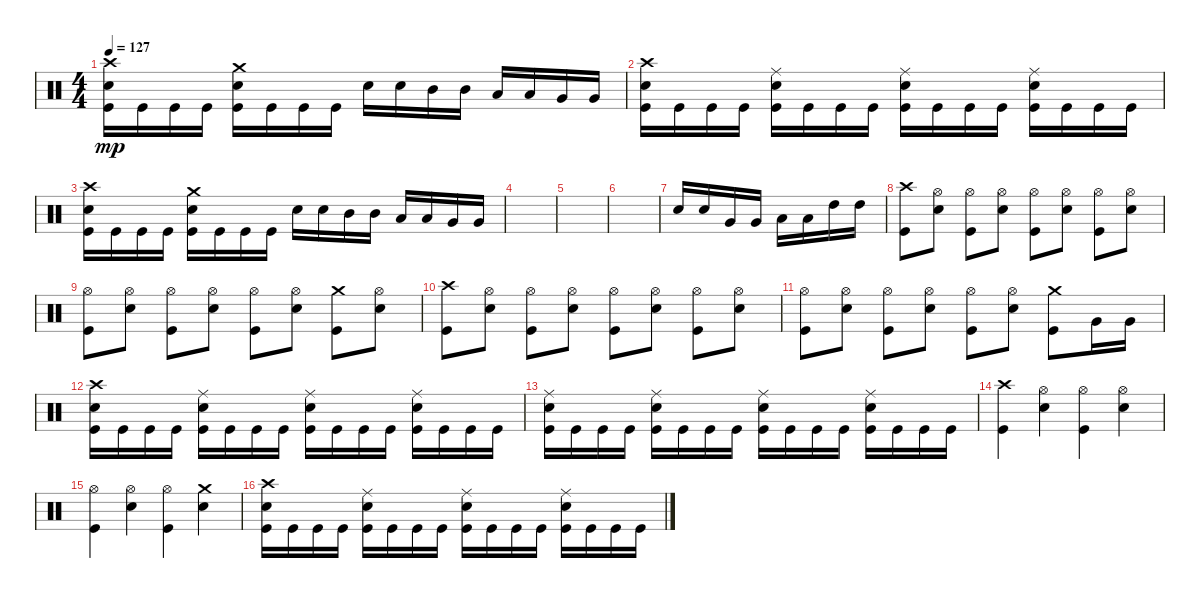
\track "" {instrument percussion}
\staff {score}
\articulation defaults
\ts (4 4)
\tempo 127
\clef neutral
\ks c
("Crash high (hit)" "Kick (hit)" "Snare (hit) 2").16{dy mp} "Kick (hit)".16 "Kick (hit)".16 "Kick (hit)".16 ("Crash medium (hit)" "Kick (hit)" "Snare (hit) 2").16 "Kick (hit)".16 "Kick (hit)".16 "Kick (hit)".16 "Snare (hit) 2".16 "Snare (hit) 2".16 "Mid Tom (hit)".16 "Mid Tom (hit)".16 "Low Tom (hit)".16 "Low Tom (hit)".16 "Very Low Tom (hit)".16 "Very Low Tom (hit)".16 |
("Kick (hit)" "Crash high (hit)" "Snare (hit) 2").16 "Kick (hit)".16 "Kick (hit)".16 "Kick (hit)".16 ("Kick (hit)" "Snare (hit) 2" "Ride (middle)").16 "Kick (hit)".16 "Kick (hit)".16 "Kick (hit)".16 ("Kick (hit)" "Snare (hit) 2" "Ride (middle)").16 "Kick (hit)".16 "Kick (hit)".16 "Kick (hit)".16 ("Kick (hit)" "Snare (hit) 2" "Ride (middle)").16 "Kick (hit)".16 "Kick (hit)".16 "Kick (hit)".16 |
("Crash high (hit)" "Kick (hit)" "Snare (hit) 2").16 "Kick (hit)".16 "Kick (hit)".16 "Kick (hit)".16 ("Crash medium (hit)" "Kick (hit)" "Snare (hit) 2").16 "Kick (hit)".16 "Kick (hit)".16 "Kick (hit)".16 "Snare (hit) 2".16 "Snare (hit) 2".16 "Mid Tom (hit)".16 "Mid Tom (hit)".16 "Low Tom (hit)".16 "Low Tom (hit)".16 "Very Low Tom (hit)".16 "Very Low Tom (hit)".16 |
|
|
|
"Snare (hit) 2".16 "Snare (hit) 2".16 "Very Low Tom (hit)".16 "Very Low Tom (hit)".16 "Low Tom (hit)".16 "Low Tom (hit)".16 "High Tom (hit)".16 "High Tom (hit)".16 |
("Kick (hit)" "Crash high (hit)").8 ("Snare (hit) 2" "Hi-Hat (open)").8 ("Hi-Hat (open)" "Kick (hit)").8 ("Snare (hit) 2" "Hi-Hat (open)").8 ("Hi-Hat (open)" "Kick (hit)").8 ("Snare (hit) 2" "Hi-Hat (open)").8 ("Hi-Hat (open)" "Kick (hit)").8 ("Snare (hit) 2" "Hi-Hat (open)").8 |
("Hi-Hat (open)" "Kick (hit)").8 ("Snare (hit) 2" "Hi-Hat (open)").8 ("Hi-Hat (open)" "Kick (hit)").8 ("Snare (hit) 2" "Hi-Hat (open)").8 ("Hi-Hat (open)" "Kick (hit)").8 ("Snare (hit) 2" "Hi-Hat (open)").8 ("Crash medium (hit)" "Kick (hit)").8 ("Snare (hit) 2" "Hi-Hat (open)").8 |
("Kick (hit)" "Crash high (hit)").8 ("Snare (hit) 2" "Hi-Hat (open)").8 ("Hi-Hat (open)" "Kick (hit)").8 ("Snare (hit) 2" "Hi-Hat (open)").8 ("Hi-Hat (open)" "Kick (hit)").8 ("Snare (hit) 2" "Hi-Hat (open)").8 ("Hi-Hat (open)" "Kick (hit)").8 ("Snare (hit) 2" "Hi-Hat (open)").8 |
("Hi-Hat (open)" "Kick (hit)").8 ("Snare (hit) 2" "Hi-Hat (open)").8 ("Hi-Hat (open)" "Kick (hit)").8 ("Snare (hit) 2" "Hi-Hat (open)").8 ("Hi-Hat (open)" "Kick (hit)").8 ("Snare (hit) 2" "Hi-Hat (open)").8 ("Crash medium (hit)" "Kick (hit)").8 "Very Low Tom (hit)".16 "Very Low Tom (hit)".16 |
("Kick (hit)" "Snare (hit) 2" "Crash high (hit)").16 "Kick (hit)".16 "Kick (hit)".16 "Kick (hit)".16 ("Kick (hit)" "Snare (hit) 2" "Ride (middle)").16 "Kick (hit)".16 "Kick (hit)".16 "Kick (hit)".16 ("Kick (hit)" "Snare (hit) 2" "Ride (middle)").16 "Kick (hit)".16 "Kick (hit)".16 "Kick (hit)".16 ("Kick (hit)" "Snare (hit) 2" "Ride (middle)").16 "Kick (hit)".16 "Kick (hit)".16 "Kick (hit)".16 |
("Kick (hit)" "Snare (hit) 2" "Ride (middle)").16 "Kick (hit)".16 "Kick (hit)".16 "Kick (hit)".16 ("Kick (hit)" "Snare (hit) 2" "Ride (middle)").16 "Kick (hit)".16 "Kick (hit)".16 "Kick (hit)".16 ("Kick (hit)" "Snare (hit) 2" "Ride (middle)").16 "Kick (hit)".16 "Kick (hit)".16 "Kick (hit)".16 ("Kick (hit)" "Snare (hit) 2" "Ride (middle)").16 "Kick (hit)".16 "Kick (hit)".16 "Kick (hit)".16 |
("Kick (hit)" "Crash high (hit)").4 ("Hi-Hat (open)" "Snare (hit) 2").4 ("Hi-Hat (open)" "Kick (hit)").4 ("Hi-Hat (open)" "Snare (hit) 2").4 |
("Hi-Hat (open)" "Kick (hit)").4 ("Hi-Hat (open)" "Snare (hit) 2").4 ("Hi-Hat (open)" "Kick (hit)").4 ("Snare (hit) 2" "Crash medium (hit)").4 |
("Kick (hit)" "Snare (hit) 2" "Crash high (hit)").16 "Kick (hit)".16 "Kick (hit)".16 "Kick (hit)".16 ("Kick (hit)" "Snare (hit) 2" "Ride (middle)").16 "Kick (hit)".16 "Kick (hit)".16 "Kick (hit)".16 ("Kick (hit)" "Snare (hit) 2" "Ride (middle)").16 "Kick (hit)".16 "Kick (hit)".16 "Kick (hit)".16 ("Kick (hit)" "Snare (hit) 2" "Ride (middle)").16 "Kick (hit)".16 "Kick (hit)".16 "Kick (hit)".16
